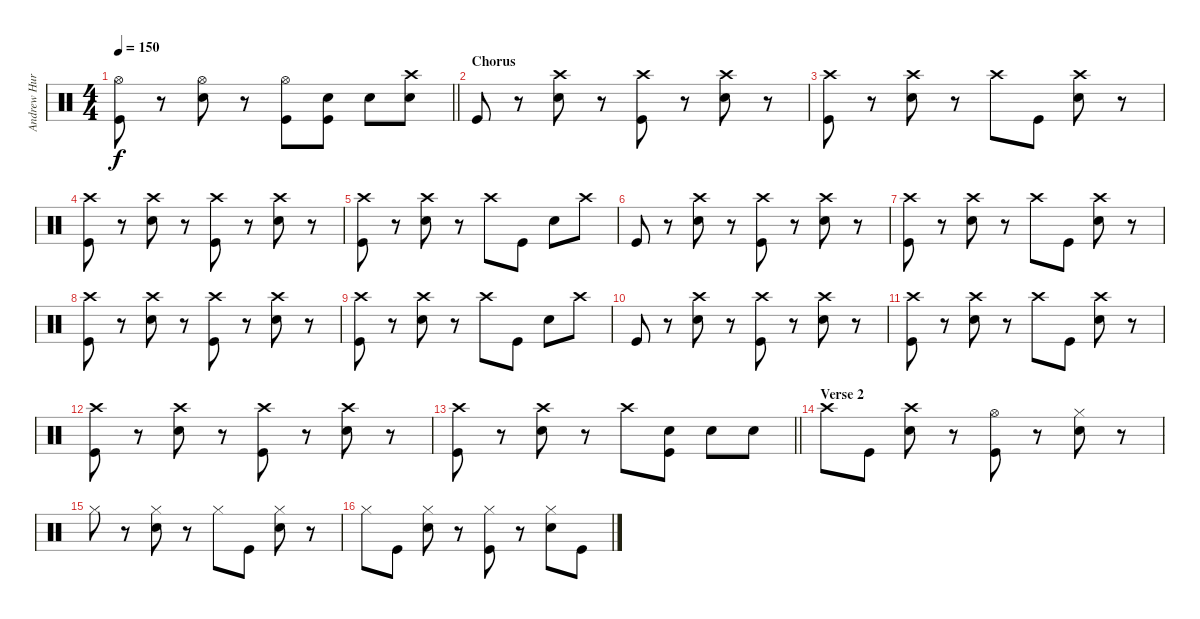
\track ("Andrew Hurley (Drums)" "Andrew Hur") {instrument percussion}
\staff {score}
\articulation defaults
\ts (4 4)
\tempo 150
\clef neutral
\barLineRight lightlight
\ks c
("Hi-Hat (open)" "Kick (hit)").8{dy f} r.8 ("Hi-Hat (open)" "Snare (hit) 2").8 r.8 ("Hi-Hat (open)" "Kick (hit)").8 ("Snare (hit) 2" "Kick (hit)").8 "Snare (hit) 2".8 ("Crash high (hit)" "Snare (hit) 2").8 |
\section ("" "Chorus")
"Kick (hit)".8 r.8 ("Crash high (hit)" "Snare (hit) 2").8 r.8 ("Crash high (hit)" "Kick (hit)").8 r.8 ("Crash high (hit)" "Snare (hit) 2").8 r.8 |
("Crash high (hit)" "Kick (hit)").8 r.8 ("Crash high (hit)" "Snare (hit) 2").8 r.8 "Crash high (hit)".8 "Kick (hit)".8 ("Crash high (hit)" "Snare (hit) 2").8 r.8 |
("Crash high (hit)" "Kick (hit)").8 r.8 ("Crash high (hit)" "Snare (hit) 2").8 r.8 ("Crash high (hit)" "Kick (hit)").8 r.8 ("Crash high (hit)" "Snare (hit) 2").8 r.8 |
("Crash high (hit)" "Kick (hit)").8 r.8 ("Crash high (hit)" "Snare (hit) 2").8 r.8 "Crash high (hit)".8 "Kick (hit)".8 "Snare (hit) 2".8 "Crash high (hit)".8 |
"Kick (hit)".8 r.8 ("Crash high (hit)" "Snare (hit) 2").8 r.8 ("Crash high (hit)" "Kick (hit)").8 r.8 ("Crash high (hit)" "Snare (hit) 2").8 r.8 |
("Crash high (hit)" "Kick (hit)").8 r.8 ("Crash high (hit)" "Snare (hit) 2").8 r.8 "Crash high (hit)".8 "Kick (hit)".8 ("Crash high (hit)" "Snare (hit) 2").8 r.8 |
("Crash high (hit)" "Kick (hit)").8 r.8 ("Crash high (hit)" "Snare (hit) 2").8 r.8 ("Crash high (hit)" "Kick (hit)").8 r.8 ("Crash high (hit)" "Snare (hit) 2").8 r.8 |
("Crash high (hit)" "Kick (hit)").8 r.8 ("Crash high (hit)" "Snare (hit) 2").8 r.8 "Crash high (hit)".8 "Kick (hit)".8 "Snare (hit) 2".8 "Crash high (hit)".8 |
"Kick (hit)".8 r.8 ("Crash high (hit)" "Snare (hit) 2").8 r.8 ("Crash high (hit)" "Kick (hit)").8 r.8 ("Crash high (hit)" "Snare (hit) 2").8 r.8 |
("Crash high (hit)" "Kick (hit)").8 r.8 ("Crash high (hit)" "Snare (hit) 2").8 r.8 "Crash high (hit)".8 "Kick (hit)".8 ("Crash high (hit)" "Snare (hit) 2").8 r.8 |
("Crash high (hit)" "Kick (hit)").8 r.8 ("Crash high (hit)" "Snare (hit) 2").8 r.8 ("Crash high (hit)" "Kick (hit)").8 r.8 ("Crash high (hit)" "Snare (hit) 2").8 r.8 |
\barLineRight lightlight
("Crash high (hit)" "Kick (hit)").8 r.8 ("Crash high (hit)" "Snare (hit) 2").8 r.8 "Crash high (hit)".8 ("Snare (hit) 2" "Kick (hit)").8 "Snare (hit) 2".8 "Snare (hit) 2".8 |
\section ("" "Verse 2")
"Crash high (hit)".8 "Kick (hit)".8 ("Crash high (hit)" "Snare (hit) 2").8 r.8 ("Hi-Hat (open)" "Kick (hit)").8 r.8 ("Hi-Hat (closed)" "Snare (hit) 2").8 r.8 |
"Hi-Hat (closed)".8 r.8 ("Hi-Hat (closed)" "Snare (hit) 2").8 r.8 "Hi-Hat (closed)".8 "Kick (hit)".8 ("Hi-Hat (closed)" "Snare (hit) 2").8 r.8 |
"Hi-Hat (closed)".8 "Kick (hit)".8 ("Hi-Hat (closed)" "Snare (hit) 2").8 r.8 ("Hi-Hat (closed)" "Kick (hit)").8 r.8 ("Hi-Hat (closed)" "Snare (hit) 2").8 "Kick (hit)".8
